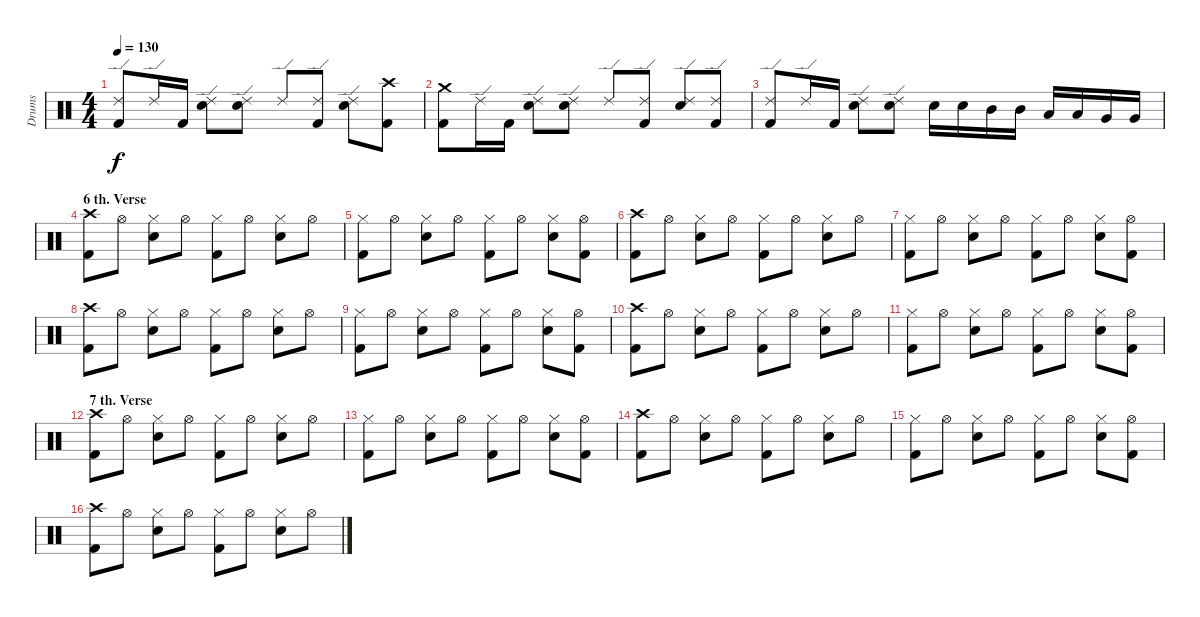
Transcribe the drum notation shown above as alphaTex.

\track ("Drums" "Drums") {instrument percussion}
\staff {score}
\articulation defaults
\ts (4 4)
\tempo 130
\clef neutral
\ks c
("Ride (edge) 2" "Kick (hit) 2").8{dy f} "Ride (edge) 2".16 "Kick (hit) 2".16 ("Ride (edge) 2" "Snare (hit) 2").8 ("Ride (edge) 2" "Snare (hit) 2").8 "Ride (edge) 2".8 ("Ride (edge) 2" "Kick (hit) 2").8 ("Ride (edge) 2" "Snare (hit) 2").8 ("Crash high (hit)" "Kick (hit) 2").8 |
("Crash medium (hit)" "Kick (hit) 2").8 "Ride (edge) 2".16 "Kick (hit) 2".16 ("Ride (edge) 2" "Snare (hit) 2").8 ("Ride (edge) 2" "Snare (hit) 2").8 "Ride (edge) 2".8 ("Ride (edge) 2" "Kick (hit) 2").8 ("Ride (edge) 2" "Snare (hit) 2").8 ("Ride (edge) 2" "Kick (hit) 2").8 |
("Ride (edge) 2" "Kick (hit) 2").8 "Ride (edge) 2".16 "Kick (hit) 2".16 ("Ride (edge) 2" "Snare (hit) 2").8 ("Ride (edge) 2" "Snare (hit) 2").8 "Snare (hit) 2".16 "Snare (hit) 2".16 "Mid Tom (hit)".16 "Mid Tom (hit)".16 "Low Tom (hit)".16 "Low Tom (hit)".16 "Very Low Tom (hit)".16 "Very Low Tom (hit)".16 |
\section ("" "6 th. Verse")
("Crash high (hit)" "Kick (hit) 2").8 "Hi-Hat (open)".8 ("Hi-Hat (closed)" "Snare (hit) 2").8 "Hi-Hat (open)".8 ("Hi-Hat (closed)" "Kick (hit) 2").8 "Hi-Hat (open)".8 ("Hi-Hat (closed)" "Snare (hit) 2").8 "Hi-Hat (open)".8 |
("Hi-Hat (closed)" "Kick (hit) 2").8 "Hi-Hat (open)".8 ("Hi-Hat (closed)" "Snare (hit) 2").8 "Hi-Hat (open)".8 ("Hi-Hat (closed)" "Kick (hit) 2").8 "Hi-Hat (open)".8 ("Hi-Hat (closed)" "Snare (hit) 2").8 ("Hi-Hat (open)" "Kick (hit) 2").8 |
("Crash high (hit)" "Kick (hit) 2").8 "Hi-Hat (open)".8 ("Hi-Hat (closed)" "Snare (hit) 2").8 "Hi-Hat (open)".8 ("Hi-Hat (closed)" "Kick (hit) 2").8 "Hi-Hat (open)".8 ("Hi-Hat (closed)" "Snare (hit) 2").8 "Hi-Hat (open)".8 |
("Hi-Hat (closed)" "Kick (hit) 2").8 "Hi-Hat (open)".8 ("Hi-Hat (closed)" "Snare (hit) 2").8 "Hi-Hat (open)".8 ("Hi-Hat (closed)" "Kick (hit) 2").8 "Hi-Hat (open)".8 ("Hi-Hat (closed)" "Snare (hit) 2").8 ("Hi-Hat (open)" "Kick (hit) 2").8 |
("Crash high (hit)" "Kick (hit) 2").8 "Hi-Hat (open)".8 ("Hi-Hat (closed)" "Snare (hit) 2").8 "Hi-Hat (open)".8 ("Hi-Hat (closed)" "Kick (hit) 2").8 "Hi-Hat (open)".8 ("Hi-Hat (closed)" "Snare (hit) 2").8 "Hi-Hat (open)".8 |
("Hi-Hat (closed)" "Kick (hit) 2").8 "Hi-Hat (open)".8 ("Hi-Hat (closed)" "Snare (hit) 2").8 "Hi-Hat (open)".8 ("Hi-Hat (closed)" "Kick (hit) 2").8 "Hi-Hat (open)".8 ("Hi-Hat (closed)" "Snare (hit) 2").8 ("Hi-Hat (open)" "Kick (hit) 2").8 |
("Crash high (hit)" "Kick (hit) 2").8 "Hi-Hat (open)".8 ("Hi-Hat (closed)" "Snare (hit) 2").8 "Hi-Hat (open)".8 ("Hi-Hat (closed)" "Kick (hit) 2").8 "Hi-Hat (open)".8 ("Hi-Hat (closed)" "Snare (hit) 2").8 "Hi-Hat (open)".8 |
("Hi-Hat (closed)" "Kick (hit) 2").8 "Hi-Hat (open)".8 ("Hi-Hat (closed)" "Snare (hit) 2").8 "Hi-Hat (open)".8 ("Hi-Hat (closed)" "Kick (hit) 2").8 "Hi-Hat (open)".8 ("Hi-Hat (closed)" "Snare (hit) 2").8 ("Hi-Hat (open)" "Kick (hit) 2").8 |
\section ("" "7 th. Verse")
("Crash high (hit)" "Kick (hit) 2").8 "Hi-Hat (open)".8 ("Hi-Hat (closed)" "Snare (hit) 2").8 "Hi-Hat (open)".8 ("Hi-Hat (closed)" "Kick (hit) 2").8 "Hi-Hat (open)".8 ("Hi-Hat (closed)" "Snare (hit) 2").8 "Hi-Hat (open)".8 |
("Hi-Hat (closed)" "Kick (hit) 2").8 "Hi-Hat (open)".8 ("Hi-Hat (closed)" "Snare (hit) 2").8 "Hi-Hat (open)".8 ("Hi-Hat (closed)" "Kick (hit) 2").8 "Hi-Hat (open)".8 ("Hi-Hat (closed)" "Snare (hit) 2").8 ("Hi-Hat (open)" "Kick (hit) 2").8 |
("Crash high (hit)" "Kick (hit) 2").8 "Hi-Hat (open)".8 ("Hi-Hat (closed)" "Snare (hit) 2").8 "Hi-Hat (open)".8 ("Hi-Hat (closed)" "Kick (hit) 2").8 "Hi-Hat (open)".8 ("Hi-Hat (closed)" "Snare (hit) 2").8 "Hi-Hat (open)".8 |
("Hi-Hat (closed)" "Kick (hit) 2").8 "Hi-Hat (open)".8 ("Hi-Hat (closed)" "Snare (hit) 2").8 "Hi-Hat (open)".8 ("Hi-Hat (closed)" "Kick (hit) 2").8 "Hi-Hat (open)".8 ("Hi-Hat (closed)" "Snare (hit) 2").8 ("Hi-Hat (open)" "Kick (hit) 2").8 |
("Crash high (hit)" "Kick (hit) 2").8 "Hi-Hat (open)".8 ("Hi-Hat (closed)" "Snare (hit) 2").8 "Hi-Hat (open)".8 ("Hi-Hat (closed)" "Kick (hit) 2").8 "Hi-Hat (open)".8 ("Hi-Hat (closed)" "Snare (hit) 2").8 "Hi-Hat (open)".8
